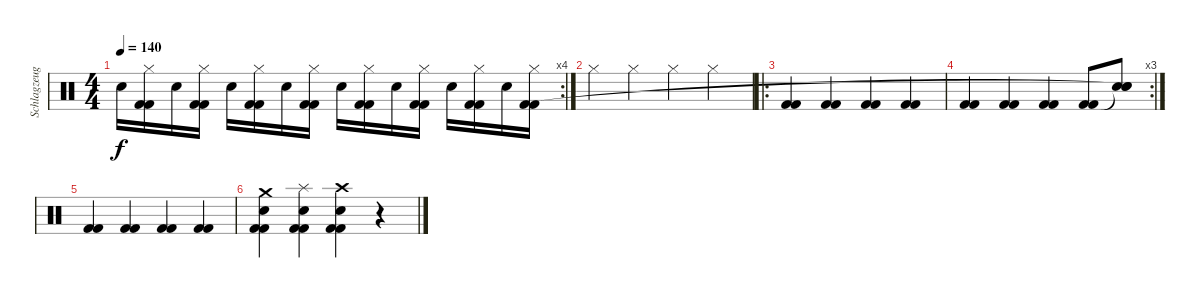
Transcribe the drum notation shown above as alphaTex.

\track ("Schlagzeug" "Schlagzeug") {instrument percussion}
\staff {score}
\articulation defaults
\rc 4
\ts (4 4)
\tempo 140
\clef neutral
\ks c "Snare (hit) 2".16{dy f}
("Hi-Hat (closed)" "Kick (hit) 2" "Kick (hit) 2").16 "Snare (hit) 2".16 ("Hi-Hat (closed)" "Kick (hit) 2" "Kick (hit) 2").16 "Snare (hit) 2".16 ("Hi-Hat (closed)" "Kick (hit) 2" "Kick (hit) 2").16 "Snare (hit) 2".16 ("Hi-Hat (closed)" "Kick (hit) 2" "Kick (hit) 2").16 "Snare (hit) 2".16 ("Hi-Hat (closed)" "Kick (hit) 2" "Kick (hit) 2").16 "Snare (hit) 2".16 ("Hi-Hat (closed)" "Kick (hit) 2" "Kick (hit) 2").16 "Snare (hit) 2".16 ("Hi-Hat (closed)" "Kick (hit) 2" "Kick (hit) 2").16 "Snare (hit) 2".16 ("Hi-Hat (closed)" "Kick (hit) 2" "Kick (hit) 2").16 |
"Hi-Hat (closed)".4 "Hi-Hat (closed)".4 "Hi-Hat (closed)".4 "Hi-Hat (closed)".4 |
\ro
("Kick (hit) 2" "Kick (hit) 2").4 ("Kick (hit) 2" "Kick (hit) 2").4 ("Kick (hit) 2" "Kick (hit) 2").4 ("Kick (hit) 2" "Kick (hit) 2").4 |
\rc 3
("Kick (hit) 2" "Kick (hit) 2").4 ("Kick (hit) 2" "Kick (hit) 2").4 ("Kick (hit) 2" "Kick (hit) 2").4 ("Kick (hit) 2" "Kick (hit) 2").8 ("Snare (hit) 2" "Snare (hit)"{t} "Snare (hit)"{t}).8 |
("Kick (hit) 2" "Kick (hit) 2").4 ("Kick (hit) 2" "Kick (hit) 2").4 ("Kick (hit) 2" "Kick (hit) 2").4 ("Kick (hit) 2" "Kick (hit) 2").4 |
("Crash medium (hit)" "Snare (hit) 2" "Kick (hit) 2" "Kick (hit) 2").4 ("Splash (hit)" "Snare (hit) 2" "Kick (hit) 2" "Kick (hit) 2").4 ("Crash high (hit)" "Snare (hit) 2" "Kick (hit) 2" "Kick (hit) 2").4 r.4
